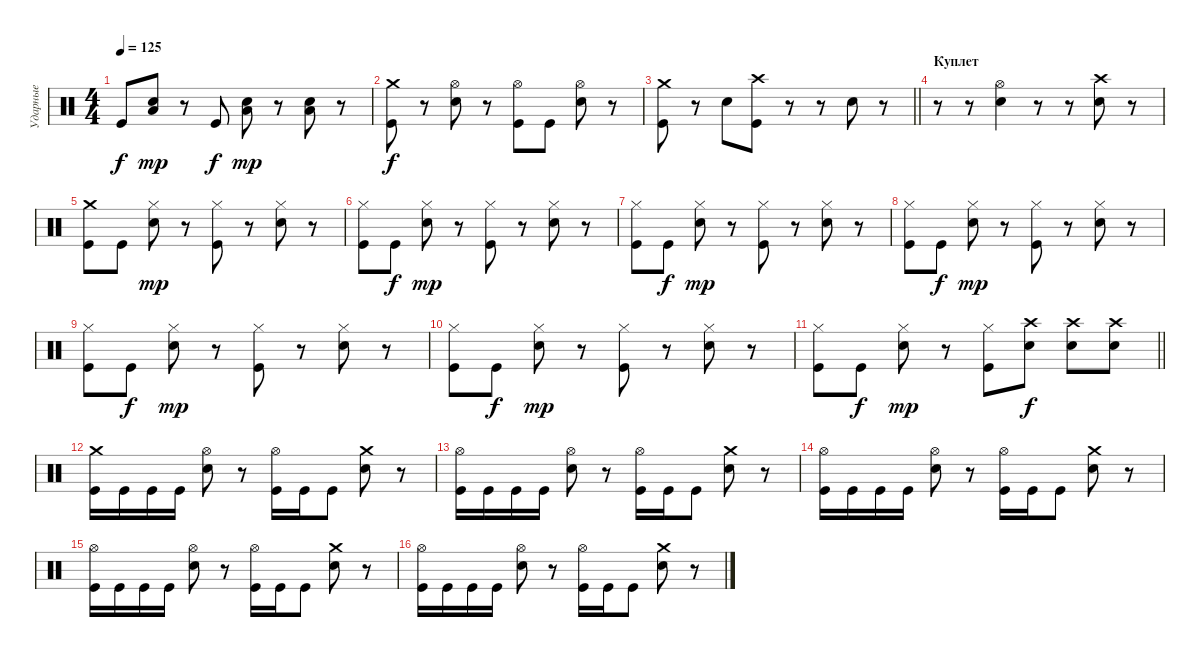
\track ("Ударные" "Ударные") {instrument percussion}
\staff {score}
\articulation defaults
\ts (4 4)
\tempo 125
\clef neutral
\ks c "Kick (hit)".8{dy f}
("Low Tom (hit)" "Electric Snare (hit)").8{dy mp} r.8 "Kick (hit)".8{dy f} ("Low Tom (hit)" "Electric Snare (hit)").8{dy mp} r.8 ("Low Tom (hit)" "Electric Snare (hit)").8 r.8 |
("Crash medium (hit)" "Kick (hit)").8{dy f} r.8 ("Hi-Hat (open)" "Electric Snare (hit)").8 r.8 ("Hi-Hat (open)" "Kick (hit)").8 "Kick (hit)".8 ("Hi-Hat (open)" "Electric Snare (hit)").8 r.8 |
\barLineRight lightlight
("Crash medium (hit)" "Kick (hit)").8 r.8 "Electric Snare (hit)".8 ("Crash high (hit)" "Kick (hit)").8 r.8 r.8 "Electric Snare (hit)".8 r.8 |
\section ("" "Куплет")
r.8 r.8 ("Hi-Hat (open)" "Electric Snare (hit)").4 r.8 r.8 ("Crash high (hit)" "Electric Snare (hit)").8 r.8 |
("Crash medium (hit)" "Kick (hit)").8 "Kick (hit)".8 ("Hi-Hat (closed)" "Electric Snare (hit)").8{dy mp} r.8 ("Hi-Hat (closed)" "Kick (hit)").8 r.8 ("Hi-Hat (closed)" "Electric Snare (hit)").8 r.8 |
("Hi-Hat (closed)" "Kick (hit)").8 "Kick (hit)".8{dy f} ("Hi-Hat (closed)" "Electric Snare (hit)").8{dy mp} r.8 ("Hi-Hat (closed)" "Kick (hit)").8 r.8 ("Hi-Hat (closed)" "Electric Snare (hit)").8 r.8 |
("Hi-Hat (closed)" "Kick (hit)").8 "Kick (hit)".8{dy f} ("Hi-Hat (closed)" "Electric Snare (hit)").8{dy mp} r.8 ("Hi-Hat (closed)" "Kick (hit)").8 r.8 ("Hi-Hat (closed)" "Electric Snare (hit)").8 r.8 |
("Hi-Hat (closed)" "Kick (hit)").8 "Kick (hit)".8{dy f} ("Hi-Hat (closed)" "Electric Snare (hit)").8{dy mp} r.8 ("Hi-Hat (closed)" "Kick (hit)").8 r.8 ("Hi-Hat (closed)" "Electric Snare (hit)").8 r.8 |
("Hi-Hat (closed)" "Kick (hit)").8 "Kick (hit)".8{dy f} ("Hi-Hat (closed)" "Electric Snare (hit)").8{dy mp} r.8 ("Hi-Hat (closed)" "Kick (hit)").8 r.8 ("Hi-Hat (closed)" "Electric Snare (hit)").8 r.8 |
("Hi-Hat (closed)" "Kick (hit)").8 "Kick (hit)".8{dy f} ("Hi-Hat (closed)" "Electric Snare (hit)").8{dy mp} r.8 ("Hi-Hat (closed)" "Kick (hit)").8 r.8 ("Hi-Hat (closed)" "Electric Snare (hit)").8 r.8 |
\barLineRight lightlight
("Hi-Hat (closed)" "Kick (hit)").8 "Kick (hit)".8{dy f} ("Hi-Hat (closed)" "Electric Snare (hit)").8{dy mp} r.8 ("Hi-Hat (closed)" "Kick (hit)").8 ("Crash high (hit)" "Electric Snare (hit)").8{dy f} ("Crash high (hit)" "Electric Snare (hit)").8 ("Crash high (hit)" "Electric Snare (hit)").8 |
\section ("" " ")
("Crash medium (hit)" "Kick (hit)").16 "Kick (hit)".16 "Kick (hit)".16 "Kick (hit)".16 ("Hi-Hat (open)" "Electric Snare (hit)").8 r.8 ("Hi-Hat (open)" "Kick (hit)").16 "Kick (hit)".16 "Kick (hit)".8 ("Crash medium (hit)" "Electric Snare (hit)").8 r.8 |
("Hi-Hat (open)" "Kick (hit)").16 "Kick (hit)".16 "Kick (hit)".16 "Kick (hit)".16 ("Hi-Hat (open)" "Electric Snare (hit)").8 r.8 ("Hi-Hat (open)" "Kick (hit)").16 "Kick (hit)".16 "Kick (hit)".8 ("Crash medium (hit)" "Electric Snare (hit)").8 r.8 |
("Hi-Hat (open)" "Kick (hit)").16 "Kick (hit)".16 "Kick (hit)".16 "Kick (hit)".16 ("Hi-Hat (open)" "Electric Snare (hit)").8 r.8 ("Hi-Hat (open)" "Kick (hit)").16 "Kick (hit)".16 "Kick (hit)".8 ("Crash medium (hit)" "Electric Snare (hit)").8 r.8 |
("Hi-Hat (open)" "Kick (hit)").16 "Kick (hit)".16 "Kick (hit)".16 "Kick (hit)".16 ("Hi-Hat (open)" "Electric Snare (hit)").8 r.8 ("Hi-Hat (open)" "Kick (hit)").16 "Kick (hit)".16 "Kick (hit)".8 ("Crash medium (hit)" "Electric Snare (hit)").8 r.8 |
("Hi-Hat (open)" "Kick (hit)").16 "Kick (hit)".16 "Kick (hit)".16 "Kick (hit)".16 ("Hi-Hat (open)" "Electric Snare (hit)").8 r.8 ("Hi-Hat (open)" "Kick (hit)").16 "Kick (hit)".16 "Kick (hit)".8 ("Crash medium (hit)" "Electric Snare (hit)").8 r.8
